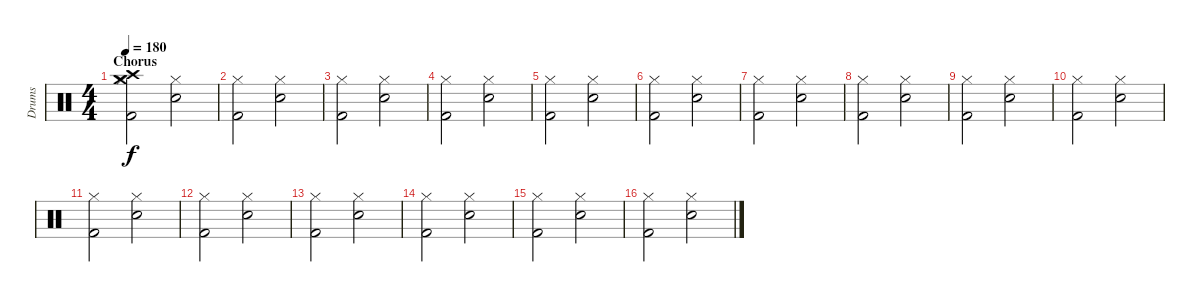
\track ("Drums" "Drums") {instrument percussion}
\staff {score}
\articulation defaults
\ts (4 4)
\section ("" "Chorus")
\tempo 180
\clef neutral
\ks c
("Crash high (hit)" "Crash medium (hit)" "Hi-Hat (closed)" "Kick (hit) 2").2{dy f} ("Hi-Hat (closed)" "Snare (hit) 2").2 |
("Hi-Hat (closed)" "Kick (hit) 2").2 ("Hi-Hat (closed)" "Snare (hit) 2").2 |
("Hi-Hat (closed)" "Kick (hit) 2").2 ("Hi-Hat (closed)" "Snare (hit) 2").2 |
("Hi-Hat (closed)" "Kick (hit) 2").2 ("Hi-Hat (closed)" "Snare (hit) 2").2 |
("Hi-Hat (closed)" "Kick (hit) 2").2 ("Hi-Hat (closed)" "Snare (hit) 2").2 |
("Hi-Hat (closed)" "Kick (hit) 2").2 ("Hi-Hat (closed)" "Snare (hit) 2").2 |
("Hi-Hat (closed)" "Kick (hit) 2").2 ("Hi-Hat (closed)" "Snare (hit) 2").2 |
("Hi-Hat (closed)" "Kick (hit) 2").2 ("Hi-Hat (closed)" "Snare (hit) 2").2 |
("Hi-Hat (closed)" "Kick (hit) 2").2 ("Hi-Hat (closed)" "Snare (hit) 2").2 |
("Hi-Hat (closed)" "Kick (hit) 2").2 ("Hi-Hat (closed)" "Snare (hit) 2").2 |
("Hi-Hat (closed)" "Kick (hit) 2").2 ("Hi-Hat (closed)" "Snare (hit) 2").2 |
("Hi-Hat (closed)" "Kick (hit) 2").2 ("Hi-Hat (closed)" "Snare (hit) 2").2 |
("Hi-Hat (closed)" "Kick (hit) 2").2 ("Hi-Hat (closed)" "Snare (hit) 2").2 |
("Hi-Hat (closed)" "Kick (hit) 2").2 ("Hi-Hat (closed)" "Snare (hit) 2").2 |
("Hi-Hat (closed)" "Kick (hit) 2").2 ("Hi-Hat (closed)" "Snare (hit) 2").2 |
("Hi-Hat (closed)" "Kick (hit) 2").2 ("Hi-Hat (closed)" "Snare (hit) 2").2
